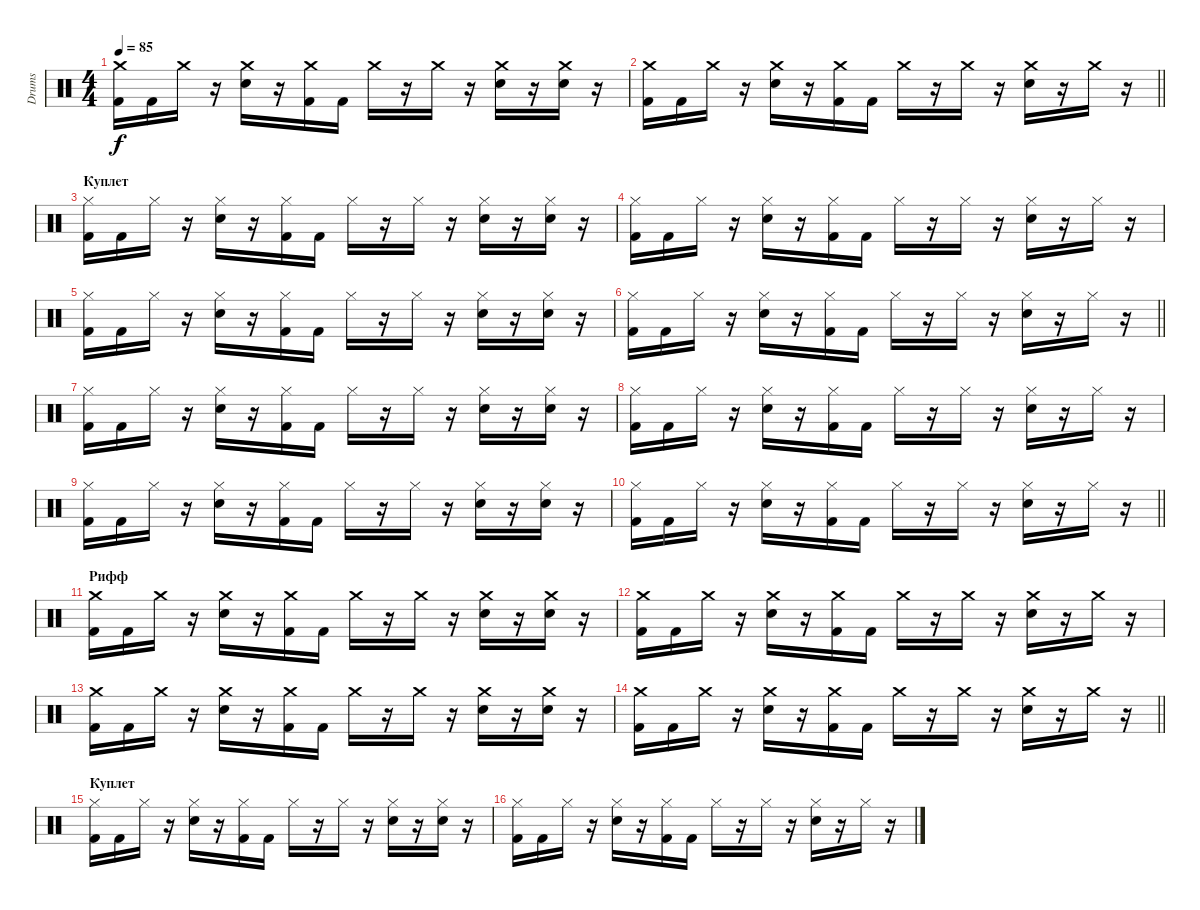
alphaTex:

\track ("Drums" "Drums") {instrument percussion}
\staff {score}
\articulation defaults
\ts (4 4)
\tempo 85
\clef neutral
\ks c
("Crash medium (hit)" "Kick (hit) 2").16{dy f} "Kick (hit) 2".16 "Crash medium (hit)".16 r.16 ("Crash medium (hit)" "Electric Snare (hit)").16 r.16 ("Crash medium (hit)" "Kick (hit) 2").16 "Kick (hit) 2".16 "Crash medium (hit)".16 r.16 "Crash medium (hit)".16 r.16 ("Crash medium (hit)" "Electric Snare (hit)").16 r.16 ("Crash medium (hit)" "Electric Snare (hit)").16 r.16 |
\barLineRight lightlight
("Crash medium (hit)" "Kick (hit) 2").16 "Kick (hit) 2".16 "Crash medium (hit)".16 r.16 ("Crash medium (hit)" "Electric Snare (hit)").16 r.16 ("Crash medium (hit)" "Kick (hit) 2").16 "Kick (hit) 2".16 "Crash medium (hit)".16 r.16 "Crash medium (hit)".16 r.16 ("Crash medium (hit)" "Electric Snare (hit)").16 r.16 "Crash medium (hit)".16 r.16 |
\section ("" "Куплет")
("Hi-Hat (closed)" "Kick (hit) 2").16 "Kick (hit) 2".16 "Hi-Hat (closed)".16 r.16 ("Hi-Hat (closed)" "Electric Snare (hit)").16 r.16 ("Hi-Hat (closed)" "Kick (hit) 2").16 "Kick (hit) 2".16 "Hi-Hat (closed)".16 r.16 "Hi-Hat (closed)".16 r.16 ("Hi-Hat (closed)" "Electric Snare (hit)").16 r.16 ("Hi-Hat (closed)" "Electric Snare (hit)").16 r.16 |
("Hi-Hat (closed)" "Kick (hit) 2").16 "Kick (hit) 2".16 "Hi-Hat (closed)".16 r.16 ("Hi-Hat (closed)" "Electric Snare (hit)").16 r.16 ("Hi-Hat (closed)" "Kick (hit) 2").16 "Kick (hit) 2".16 "Hi-Hat (closed)".16 r.16 "Hi-Hat (closed)".16 r.16 ("Hi-Hat (closed)" "Electric Snare (hit)").16 r.16 "Hi-Hat (closed)".16 r.16 |
("Hi-Hat (closed)" "Kick (hit) 2").16 "Kick (hit) 2".16 "Hi-Hat (closed)".16 r.16 ("Hi-Hat (closed)" "Electric Snare (hit)").16 r.16 ("Hi-Hat (closed)" "Kick (hit) 2").16 "Kick (hit) 2".16 "Hi-Hat (closed)".16 r.16 "Hi-Hat (closed)".16 r.16 ("Hi-Hat (closed)" "Electric Snare (hit)").16 r.16 ("Hi-Hat (closed)" "Electric Snare (hit)").16 r.16 |
\barLineRight lightlight
("Hi-Hat (closed)" "Kick (hit) 2").16 "Kick (hit) 2".16 "Hi-Hat (closed)".16 r.16 ("Hi-Hat (closed)" "Electric Snare (hit)").16 r.16 ("Hi-Hat (closed)" "Kick (hit) 2").16 "Kick (hit) 2".16 "Hi-Hat (closed)".16 r.16 "Hi-Hat (closed)".16 r.16 ("Hi-Hat (closed)" "Electric Snare (hit)").16 r.16 "Hi-Hat (closed)".16 r.16 |
("Hi-Hat (closed)" "Kick (hit) 2").16 "Kick (hit) 2".16 "Hi-Hat (closed)".16 r.16 ("Hi-Hat (closed)" "Electric Snare (hit)").16 r.16 ("Hi-Hat (closed)" "Kick (hit) 2").16 "Kick (hit) 2".16 "Hi-Hat (closed)".16 r.16 "Hi-Hat (closed)".16 r.16 ("Hi-Hat (closed)" "Electric Snare (hit)").16 r.16 ("Hi-Hat (closed)" "Electric Snare (hit)").16 r.16 |
("Hi-Hat (closed)" "Kick (hit) 2").16 "Kick (hit) 2".16 "Hi-Hat (closed)".16 r.16 ("Hi-Hat (closed)" "Electric Snare (hit)").16 r.16 ("Hi-Hat (closed)" "Kick (hit) 2").16 "Kick (hit) 2".16 "Hi-Hat (closed)".16 r.16 "Hi-Hat (closed)".16 r.16 ("Hi-Hat (closed)" "Electric Snare (hit)").16 r.16 "Hi-Hat (closed)".16 r.16 |
("Hi-Hat (closed)" "Kick (hit) 2").16 "Kick (hit) 2".16 "Hi-Hat (closed)".16 r.16 ("Hi-Hat (closed)" "Electric Snare (hit)").16 r.16 ("Hi-Hat (closed)" "Kick (hit) 2").16 "Kick (hit) 2".16 "Hi-Hat (closed)".16 r.16 "Hi-Hat (closed)".16 r.16 ("Hi-Hat (closed)" "Electric Snare (hit)").16 r.16 ("Hi-Hat (closed)" "Electric Snare (hit)").16 r.16 |
\barLineRight lightlight
("Hi-Hat (closed)" "Kick (hit) 2").16 "Kick (hit) 2".16 "Hi-Hat (closed)".16 r.16 ("Hi-Hat (closed)" "Electric Snare (hit)").16 r.16 ("Hi-Hat (closed)" "Kick (hit) 2").16 "Kick (hit) 2".16 "Hi-Hat (closed)".16 r.16 "Hi-Hat (closed)".16 r.16 ("Hi-Hat (closed)" "Electric Snare (hit)").16 r.16 "Hi-Hat (closed)".16 r.16 |
\section ("" "Рифф")
("Crash medium (hit)" "Kick (hit) 2").16 "Kick (hit) 2".16 "Crash medium (hit)".16 r.16 ("Crash medium (hit)" "Electric Snare (hit)").16 r.16 ("Crash medium (hit)" "Kick (hit) 2").16 "Kick (hit) 2".16 "Crash medium (hit)".16 r.16 "Crash medium (hit)".16 r.16 ("Crash medium (hit)" "Electric Snare (hit)").16 r.16 ("Crash medium (hit)" "Electric Snare (hit)").16 r.16 |
("Crash medium (hit)" "Kick (hit) 2").16 "Kick (hit) 2".16 "Crash medium (hit)".16 r.16 ("Crash medium (hit)" "Electric Snare (hit)").16 r.16 ("Crash medium (hit)" "Kick (hit) 2").16 "Kick (hit) 2".16 "Crash medium (hit)".16 r.16 "Crash medium (hit)".16 r.16 ("Crash medium (hit)" "Electric Snare (hit)").16 r.16 "Crash medium (hit)".16 r.16 |
("Crash medium (hit)" "Kick (hit) 2").16 "Kick (hit) 2".16 "Crash medium (hit)".16 r.16 ("Crash medium (hit)" "Electric Snare (hit)").16 r.16 ("Crash medium (hit)" "Kick (hit) 2").16 "Kick (hit) 2".16 "Crash medium (hit)".16 r.16 "Crash medium (hit)".16 r.16 ("Crash medium (hit)" "Electric Snare (hit)").16 r.16 ("Crash medium (hit)" "Electric Snare (hit)").16 r.16 |
\barLineRight lightlight
("Crash medium (hit)" "Kick (hit) 2").16 "Kick (hit) 2".16 "Crash medium (hit)".16 r.16 ("Crash medium (hit)" "Electric Snare (hit)").16 r.16 ("Crash medium (hit)" "Kick (hit) 2").16 "Kick (hit) 2".16 "Crash medium (hit)".16 r.16 "Crash medium (hit)".16 r.16 ("Crash medium (hit)" "Electric Snare (hit)").16 r.16 "Crash medium (hit)".16 r.16 |
\section ("" "Куплет")
("Hi-Hat (closed)" "Kick (hit) 2").16 "Kick (hit) 2".16 "Hi-Hat (closed)".16 r.16 ("Hi-Hat (closed)" "Electric Snare (hit)").16 r.16 ("Hi-Hat (closed)" "Kick (hit) 2").16 "Kick (hit) 2".16 "Hi-Hat (closed)".16 r.16 "Hi-Hat (closed)".16 r.16 ("Hi-Hat (closed)" "Electric Snare (hit)").16 r.16 ("Hi-Hat (closed)" "Electric Snare (hit)").16 r.16 |
("Hi-Hat (closed)" "Kick (hit) 2").16 "Kick (hit) 2".16 "Hi-Hat (closed)".16 r.16 ("Hi-Hat (closed)" "Electric Snare (hit)").16 r.16 ("Hi-Hat (closed)" "Kick (hit) 2").16 "Kick (hit) 2".16 "Hi-Hat (closed)".16 r.16 "Hi-Hat (closed)".16 r.16 ("Hi-Hat (closed)" "Electric Snare (hit)").16 r.16 "Hi-Hat (closed)".16 r.16
